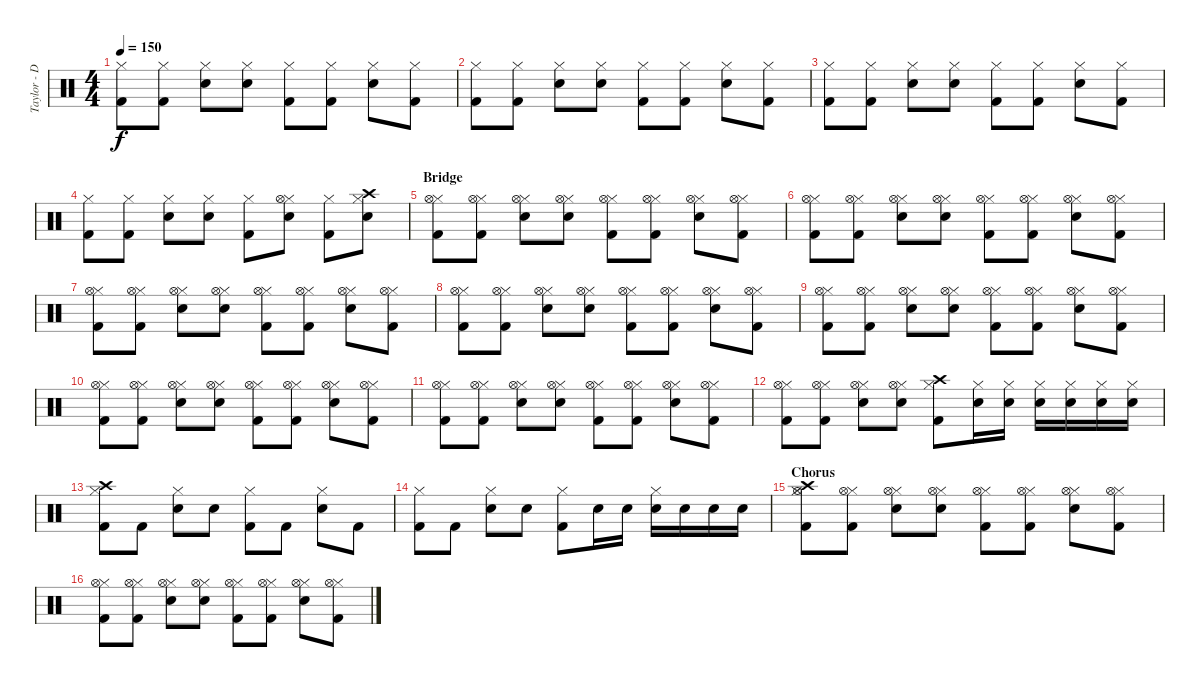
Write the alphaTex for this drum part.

\track ("Taylor - Drums" "Taylor - D") {instrument percussion}
\staff {score}
\articulation defaults
\ts (4 4)
\tempo 150
\clef neutral
\ks c
("Kick (hit) 2" "Hi-Hat (closed)").8{dy f} ("Kick (hit) 2" "Hi-Hat (closed)").8 ("Snare (hit) 2" "Hi-Hat (closed)").8 ("Snare (hit) 2" "Hi-Hat (closed)").8 ("Kick (hit) 2" "Hi-Hat (closed)").8 ("Kick (hit) 2" "Hi-Hat (closed)").8 ("Snare (hit) 2" "Hi-Hat (closed)").8 ("Kick (hit) 2" "Hi-Hat (closed)").8 |
("Kick (hit) 2" "Hi-Hat (closed)").8 ("Kick (hit) 2" "Hi-Hat (closed)").8 ("Snare (hit) 2" "Hi-Hat (closed)").8 ("Snare (hit) 2" "Hi-Hat (closed)").8 ("Kick (hit) 2" "Hi-Hat (closed)").8 ("Kick (hit) 2" "Hi-Hat (closed)").8 ("Snare (hit) 2" "Hi-Hat (closed)").8 ("Kick (hit) 2" "Hi-Hat (closed)").8 |
("Kick (hit) 2" "Hi-Hat (closed)").8 ("Kick (hit) 2" "Hi-Hat (closed)").8 ("Snare (hit) 2" "Hi-Hat (closed)").8 ("Snare (hit) 2" "Hi-Hat (closed)").8 ("Kick (hit) 2" "Hi-Hat (closed)").8 ("Kick (hit) 2" "Hi-Hat (closed)").8 ("Snare (hit) 2" "Hi-Hat (closed)").8 ("Kick (hit) 2" "Hi-Hat (closed)").8 |
("Kick (hit) 2" "Hi-Hat (closed)").8 ("Kick (hit) 2" "Hi-Hat (closed)").8 ("Snare (hit) 2" "Hi-Hat (closed)").8 ("Snare (hit) 2" "Hi-Hat (closed)").8 ("Kick (hit) 2" "Hi-Hat (closed)").8 ("Snare (hit) 2" "Hi-Hat (closed)" "Hi-Hat (open)").8 ("Kick (hit) 2" "Hi-Hat (closed)").8 ("Snare (hit) 2" "Hi-Hat (closed)" "Crash high (hit)").8 |
\section ("" "Bridge")
("Kick (hit) 2" "Hi-Hat (closed)" "Hi-Hat (open)").8 ("Kick (hit) 2" "Hi-Hat (closed)" "Hi-Hat (open)").8 ("Snare (hit) 2" "Hi-Hat (closed)" "Hi-Hat (open)").8 ("Snare (hit) 2" "Hi-Hat (closed)" "Hi-Hat (open)").8 ("Kick (hit) 2" "Hi-Hat (closed)" "Hi-Hat (open)").8 ("Kick (hit) 2" "Hi-Hat (closed)" "Hi-Hat (open)").8 ("Snare (hit) 2" "Hi-Hat (closed)" "Hi-Hat (open)").8 ("Kick (hit) 2" "Hi-Hat (closed)" "Hi-Hat (open)").8 |
("Kick (hit) 2" "Hi-Hat (closed)" "Hi-Hat (open)").8 ("Kick (hit) 2" "Hi-Hat (closed)" "Hi-Hat (open)").8 ("Snare (hit) 2" "Hi-Hat (closed)" "Hi-Hat (open)").8 ("Snare (hit) 2" "Hi-Hat (closed)" "Hi-Hat (open)").8 ("Kick (hit) 2" "Hi-Hat (closed)" "Hi-Hat (open)").8 ("Kick (hit) 2" "Hi-Hat (closed)" "Hi-Hat (open)").8 ("Snare (hit) 2" "Hi-Hat (closed)" "Hi-Hat (open)").8 ("Kick (hit) 2" "Hi-Hat (closed)" "Hi-Hat (open)").8 |
("Kick (hit) 2" "Hi-Hat (closed)" "Hi-Hat (open)").8 ("Kick (hit) 2" "Hi-Hat (closed)" "Hi-Hat (open)").8 ("Snare (hit) 2" "Hi-Hat (closed)" "Hi-Hat (open)").8 ("Snare (hit) 2" "Hi-Hat (closed)" "Hi-Hat (open)").8 ("Kick (hit) 2" "Hi-Hat (closed)" "Hi-Hat (open)").8 ("Kick (hit) 2" "Hi-Hat (closed)" "Hi-Hat (open)").8 ("Snare (hit) 2" "Hi-Hat (closed)" "Hi-Hat (open)").8 ("Kick (hit) 2" "Hi-Hat (closed)" "Hi-Hat (open)").8 |
("Kick (hit) 2" "Hi-Hat (closed)" "Hi-Hat (open)").8 ("Kick (hit) 2" "Hi-Hat (closed)" "Hi-Hat (open)").8 ("Snare (hit) 2" "Hi-Hat (closed)" "Hi-Hat (open)").8 ("Snare (hit) 2" "Hi-Hat (closed)" "Hi-Hat (open)").8 ("Kick (hit) 2" "Hi-Hat (closed)" "Hi-Hat (open)").8 ("Kick (hit) 2" "Hi-Hat (closed)" "Hi-Hat (open)").8 ("Snare (hit) 2" "Hi-Hat (closed)" "Hi-Hat (open)").8 ("Kick (hit) 2" "Hi-Hat (closed)" "Hi-Hat (open)").8 |
("Kick (hit) 2" "Hi-Hat (closed)" "Hi-Hat (open)").8 ("Kick (hit) 2" "Hi-Hat (closed)" "Hi-Hat (open)").8 ("Snare (hit) 2" "Hi-Hat (closed)" "Hi-Hat (open)").8 ("Snare (hit) 2" "Hi-Hat (closed)" "Hi-Hat (open)").8 ("Kick (hit) 2" "Hi-Hat (closed)" "Hi-Hat (open)").8 ("Kick (hit) 2" "Hi-Hat (closed)" "Hi-Hat (open)").8 ("Snare (hit) 2" "Hi-Hat (closed)" "Hi-Hat (open)").8 ("Kick (hit) 2" "Hi-Hat (closed)" "Hi-Hat (open)").8 |
("Kick (hit) 2" "Hi-Hat (closed)" "Hi-Hat (open)").8 ("Kick (hit) 2" "Hi-Hat (closed)" "Hi-Hat (open)").8 ("Snare (hit) 2" "Hi-Hat (closed)" "Hi-Hat (open)").8 ("Snare (hit) 2" "Hi-Hat (closed)" "Hi-Hat (open)").8 ("Kick (hit) 2" "Hi-Hat (closed)" "Hi-Hat (open)").8 ("Kick (hit) 2" "Hi-Hat (closed)" "Hi-Hat (open)").8 ("Snare (hit) 2" "Hi-Hat (closed)" "Hi-Hat (open)").8 ("Kick (hit) 2" "Hi-Hat (closed)" "Hi-Hat (open)").8 |
("Kick (hit) 2" "Hi-Hat (closed)" "Hi-Hat (open)").8 ("Kick (hit) 2" "Hi-Hat (closed)" "Hi-Hat (open)").8 ("Snare (hit) 2" "Hi-Hat (closed)" "Hi-Hat (open)").8 ("Snare (hit) 2" "Hi-Hat (closed)" "Hi-Hat (open)").8 ("Kick (hit) 2" "Hi-Hat (closed)" "Hi-Hat (open)").8 ("Kick (hit) 2" "Hi-Hat (closed)" "Hi-Hat (open)").8 ("Snare (hit) 2" "Hi-Hat (closed)" "Hi-Hat (open)").8 ("Kick (hit) 2" "Hi-Hat (closed)" "Hi-Hat (open)").8 |
("Kick (hit) 2" "Hi-Hat (closed)" "Hi-Hat (open)").8 ("Kick (hit) 2" "Hi-Hat (closed)" "Hi-Hat (open)").8 ("Snare (hit) 2" "Hi-Hat (closed)" "Hi-Hat (open)").8 ("Snare (hit) 2" "Hi-Hat (closed)" "Hi-Hat (open)").8 ("Kick (hit) 2" "Hi-Hat (closed)" "Crash high (hit)").8 ("Snare (hit) 2" "Hi-Hat (closed)").16 ("Snare (hit) 2" "Hi-Hat (closed)").16 ("Snare (hit) 2" "Hi-Hat (closed)").16 ("Snare (hit) 2" "Hi-Hat (closed)").16 ("Snare (hit) 2" "Hi-Hat (closed)").16 ("Snare (hit) 2" "Hi-Hat (closed)").16 |
("Kick (hit) 2" "Hi-Hat (closed)" "Crash high (hit)").8 "Kick (hit) 2".8 ("Snare (hit) 2" "Hi-Hat (closed)").8 "Snare (hit) 2".8 ("Kick (hit) 2" "Hi-Hat (closed)").8 "Kick (hit) 2".8 ("Snare (hit) 2" "Hi-Hat (closed)").8 "Kick (hit) 2".8 |
("Kick (hit) 2" "Hi-Hat (closed)").8 "Kick (hit) 2".8 ("Snare (hit) 2" "Hi-Hat (closed)").8 "Snare (hit) 2".8 ("Kick (hit) 2" "Hi-Hat (closed)").8 "Snare (hit) 2".16 "Snare (hit) 2".16 ("Snare (hit) 2" "Hi-Hat (closed)").16 "Snare (hit) 2".16 "Snare (hit) 2".16 "Snare (hit) 2".16 |
\section ("" "Chorus")
("Kick (hit) 2" "Hi-Hat (closed)" "Hi-Hat (open)" "Crash high (hit)").8 ("Kick (hit) 2" "Hi-Hat (closed)" "Hi-Hat (open)").8 ("Snare (hit) 2" "Hi-Hat (closed)" "Hi-Hat (open)").8 ("Snare (hit) 2" "Hi-Hat (closed)" "Hi-Hat (open)").8 ("Kick (hit) 2" "Hi-Hat (closed)" "Hi-Hat (open)").8 ("Kick (hit) 2" "Hi-Hat (closed)" "Hi-Hat (open)").8 ("Snare (hit) 2" "Hi-Hat (closed)" "Hi-Hat (open)").8 ("Kick (hit) 2" "Hi-Hat (closed)" "Hi-Hat (open)").8 |
("Kick (hit) 2" "Hi-Hat (closed)" "Hi-Hat (open)").8 ("Kick (hit) 2" "Hi-Hat (closed)" "Hi-Hat (open)").8 ("Snare (hit) 2" "Hi-Hat (closed)" "Hi-Hat (open)").8 ("Snare (hit) 2" "Hi-Hat (closed)" "Hi-Hat (open)").8 ("Kick (hit) 2" "Hi-Hat (closed)" "Hi-Hat (open)").8 ("Kick (hit) 2" "Hi-Hat (closed)" "Hi-Hat (open)").8 ("Snare (hit) 2" "Hi-Hat (closed)" "Hi-Hat (open)").8 ("Kick (hit) 2" "Hi-Hat (closed)" "Hi-Hat (open)").8
